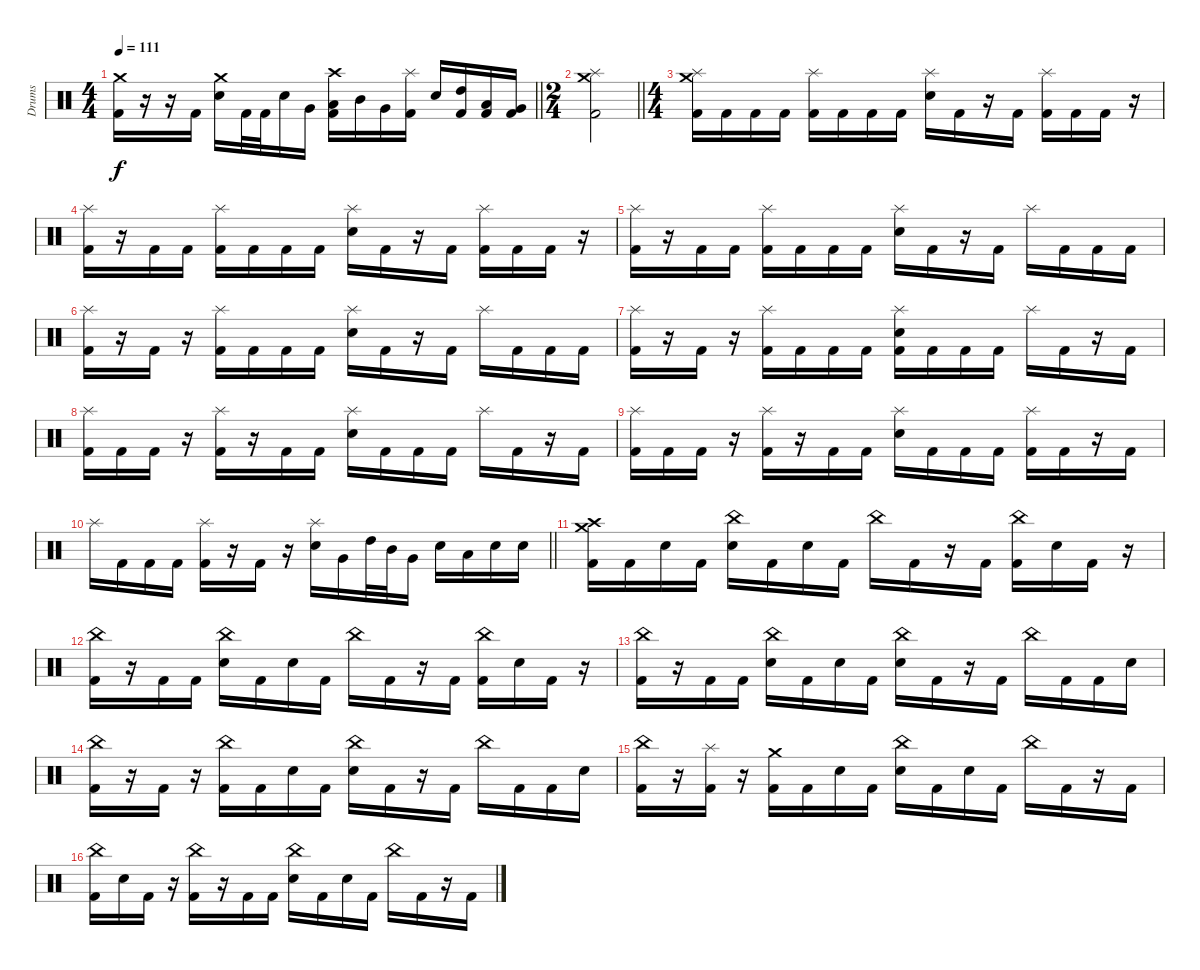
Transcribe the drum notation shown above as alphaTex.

\track ("Drums" "Drums") {instrument percussion}
\staff {score}
\articulation defaults
\ts (4 4)
\tempo 111
\clef neutral
\barLineRight lightlight
\ks c
("Crash medium (hit)" "Kick (hit) 2").16{dy f} r.16 r.16 "Kick (hit) 2".16 ("Crash medium (hit)" "Electric Snare (hit)").16 "Kick (hit) 2".32 "Kick (hit) 2".32 "Electric Snare (hit)".16 "Very Low Tom (hit)".16 ("Crash high (hit)" "Low Tom (hit)" "Kick (hit) 2").16 "Mid Tom (hit)".16 "Very Low Tom (hit)".16 ("Splash (hit)" "Kick (hit) 2").16 "Electric Snare (hit)".16 ("High Tom (hit)" "Kick (hit) 2").16 ("Low Tom (hit)" "Kick (hit) 2").16 ("Very Low Tom (hit)" "Kick (hit) 2").16 |
\ts (2 4)
\barLineRight lightlight
("Crash medium (hit)" "Splash (hit)" "Kick (hit) 2").2 |
\ts (4 4)
\section ("" "")
("Crash medium (hit)" "Splash (hit)" "Kick (hit) 2").16 "Kick (hit) 2".16 "Kick (hit) 2".16 "Kick (hit) 2".16 ("Splash (hit)" "Kick (hit) 2").16 "Kick (hit) 2".16 "Kick (hit) 2".16 "Kick (hit) 2".16 ("Splash (hit)" "Electric Snare (hit)").16 "Kick (hit) 2".16 r.16 "Kick (hit) 2".16 ("Splash (hit)" "Kick (hit) 2").16 "Kick (hit) 2".16 "Kick (hit) 2".16 r.16 |
("Splash (hit)" "Kick (hit) 2").16 r.16 "Kick (hit) 2".16 "Kick (hit) 2".16 ("Splash (hit)" "Kick (hit) 2").16 "Kick (hit) 2".16 "Kick (hit) 2".16 "Kick (hit) 2".16 ("Splash (hit)" "Electric Snare (hit)").16 "Kick (hit) 2".16 r.16 "Kick (hit) 2".16 ("Splash (hit)" "Kick (hit) 2").16 "Kick (hit) 2".16 "Kick (hit) 2".16 r.16 |
("Splash (hit)" "Kick (hit) 2").16 r.16 "Kick (hit) 2".16 "Kick (hit) 2".16 ("Splash (hit)" "Kick (hit) 2").16 "Kick (hit) 2".16 "Kick (hit) 2".16 "Kick (hit) 2".16 ("Splash (hit)" "Electric Snare (hit)").16 "Kick (hit) 2".16 r.16 "Kick (hit) 2".16 "Splash (hit)".16 "Kick (hit) 2".16 "Kick (hit) 2".16 "Kick (hit) 2".16 |
("Splash (hit)" "Kick (hit) 2").16 r.16 "Kick (hit) 2".16 r.16 ("Splash (hit)" "Kick (hit) 2").16 "Kick (hit) 2".16 "Kick (hit) 2".16 "Kick (hit) 2".16 ("Splash (hit)" "Electric Snare (hit)").16 "Kick (hit) 2".16 r.16 "Kick (hit) 2".16 "Splash (hit)".16 "Kick (hit) 2".16 "Kick (hit) 2".16 "Kick (hit) 2".16 |
("Splash (hit)" "Kick (hit) 2").16 r.16 "Kick (hit) 2".16 r.16 ("Splash (hit)" "Kick (hit) 2").16 "Kick (hit) 2".16 "Kick (hit) 2".16 "Kick (hit) 2".16 ("Splash (hit)" "Electric Snare (hit)" "Kick (hit) 2").16 "Kick (hit) 2".16 "Kick (hit) 2".16 "Kick (hit) 2".16 "Splash (hit)".16 "Kick (hit) 2".16 r.16 "Kick (hit) 2".16 |
("Splash (hit)" "Kick (hit) 2").16 "Kick (hit) 2".16 "Kick (hit) 2".16 r.16 ("Splash (hit)" "Kick (hit) 2").16 r.16 "Kick (hit) 2".16 "Kick (hit) 2".16 ("Splash (hit)" "Electric Snare (hit)").16 "Kick (hit) 2".16 "Kick (hit) 2".16 "Kick (hit) 2".16 "Splash (hit)".16 "Kick (hit) 2".16 r.16 "Kick (hit) 2".16 |
("Splash (hit)" "Kick (hit) 2").16 "Kick (hit) 2".16 "Kick (hit) 2".16 r.16 ("Splash (hit)" "Kick (hit) 2").16 r.16 "Kick (hit) 2".16 "Kick (hit) 2".16 ("Splash (hit)" "Electric Snare (hit)").16 "Kick (hit) 2".16 "Kick (hit) 2".16 "Kick (hit) 2".16 ("Splash (hit)" "Kick (hit) 2").16 "Kick (hit) 2".16 r.16 "Kick (hit) 2".16 |
\barLineRight lightlight "Splash (hit)".16 "Kick (hit) 2".16 "Kick (hit) 2".16 "Kick (hit) 2".16
("Splash (hit)" "Kick (hit) 2").16 r.16 "Kick (hit) 2".16 r.16 ("Splash (hit)" "Electric Snare (hit)").16 "Very Low Tom (hit)".16 "High Tom (hit)".32 "Mid Tom (hit)".32 "Very Low Tom (hit)".16 "Electric Snare (hit)".16 "Low Floor Tom (hit)".16 "Electric Snare (hit)".16 "Electric Snare (hit)".16 |
\section ("" "")
("Crash medium (hit)" "Crash high (hit)" "Kick (hit) 2").16 "Kick (hit) 2".16 "Electric Snare (hit)".16 "Kick (hit) 2".16 ("China (hit)" "Electric Snare (hit)").16 "Kick (hit) 2".16 "Electric Snare (hit)".16 "Kick (hit) 2".16 "China (hit)".16 "Kick (hit) 2".16 r.16 "Kick (hit) 2".16 ("China (hit)" "Kick (hit) 2").16 "Electric Snare (hit)".16 "Kick (hit) 2".16 r.16 |
("China (hit)" "Kick (hit) 2").16 r.16 "Kick (hit) 2".16 "Kick (hit) 2".16 ("China (hit)" "Electric Snare (hit)").16 "Kick (hit) 2".16 "Electric Snare (hit)".16 "Kick (hit) 2".16 "China (hit)".16 "Kick (hit) 2".16 r.16 "Kick (hit) 2".16 ("China (hit)" "Kick (hit) 2").16 "Electric Snare (hit)".16 "Kick (hit) 2".16 r.16 |
("China (hit)" "Kick (hit) 2").16 r.16 "Kick (hit) 2".16 "Kick (hit) 2".16 ("China (hit)" "Electric Snare (hit)").16 "Kick (hit) 2".16 "Electric Snare (hit)".16 "Kick (hit) 2".16 ("China (hit)" "Electric Snare (hit)").16 "Kick (hit) 2".16 r.16 "Kick (hit) 2".16 "China (hit)".16 "Kick (hit) 2".16 "Kick (hit) 2".16 "Electric Snare (hit)".16 |
("China (hit)" "Kick (hit) 2").16 r.16 "Kick (hit) 2".16 r.16 ("China (hit)" "Kick (hit) 2").16 "Kick (hit) 2".16 "Electric Snare (hit)".16 "Kick (hit) 2".16 ("China (hit)" "Electric Snare (hit)").16 "Kick (hit) 2".16 r.16 "Kick (hit) 2".16 "China (hit)".16 "Kick (hit) 2".16 "Kick (hit) 2".16 "Electric Snare (hit)".16 |
("China (hit)" "Kick (hit) 2").16 r.16 ("Splash (hit)" "Kick (hit) 2").16 r.16 ("Crash medium (hit)" "Kick (hit) 2").16 "Kick (hit) 2".16 "Electric Snare (hit)".16 "Kick (hit) 2".16 ("China (hit)" "Electric Snare (hit)").16 "Kick (hit) 2".16 "Electric Snare (hit)".16 "Kick (hit) 2".16 "China (hit)".16 "Kick (hit) 2".16 r.16 "Kick (hit) 2".16 |
("China (hit)" "Kick (hit) 2").16 "Electric Snare (hit)".16 "Kick (hit) 2".16 r.16 ("China (hit)" "Kick (hit) 2").16 r.16 "Kick (hit) 2".16 "Kick (hit) 2".16 ("China (hit)" "Electric Snare (hit)").16 "Kick (hit) 2".16 "Electric Snare (hit)".16 "Kick (hit) 2".16 "China (hit)".16 "Kick (hit) 2".16 r.16 "Kick (hit) 2".16
